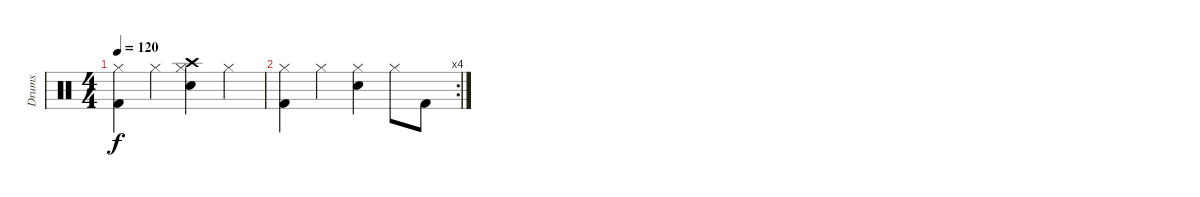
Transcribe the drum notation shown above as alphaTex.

\track ("Drums" "Drums") {instrument percussion}
\staff {score}
\articulation defaults
\ts (4 4)
\tempo 120
\clef neutral
\ks c
("Hi-Hat (closed)" "Kick (hit) 2").4{dy f} "Hi-Hat (closed)".4 ("Crash high (hit)" "Hi-Hat (closed)" "Snare (hit) 2").4 "Hi-Hat (closed)".4 |
\rc 4
("Hi-Hat (closed)" "Kick (hit) 2").4 "Hi-Hat (closed)".4 ("Hi-Hat (closed)" "Snare (hit) 2").4 "Hi-Hat (closed)".8 "Kick (hit) 2".8
